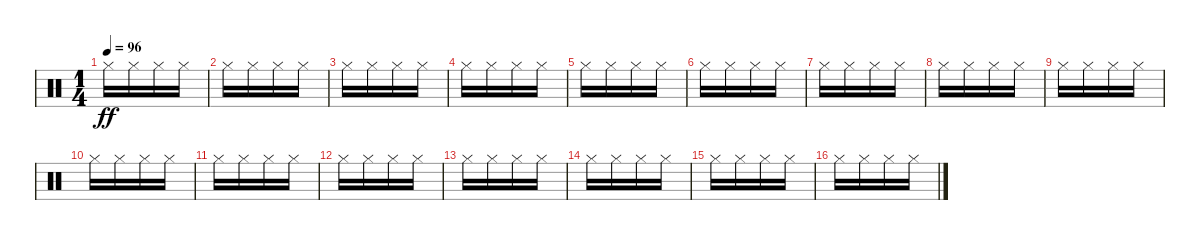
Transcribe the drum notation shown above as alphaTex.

\track "" {instrument percussion}
\staff {score}
\articulation defaults
\ts (1 4)
\tempo 96
\clef neutral
\ks c "Hi-Hat (closed)".16{dy ff} "Hi-Hat (closed)".16 "Hi-Hat (closed)".16 "Hi-Hat (closed)".16
|
"Hi-Hat (closed)".16 "Hi-Hat (closed)".16 "Hi-Hat (closed)".16 "Hi-Hat (closed)".16 |
"Hi-Hat (closed)".16 "Hi-Hat (closed)".16 "Hi-Hat (closed)".16 "Hi-Hat (closed)".16 |
"Hi-Hat (closed)".16 "Hi-Hat (closed)".16 "Hi-Hat (closed)".16 "Hi-Hat (closed)".16 |
"Hi-Hat (closed)".16 "Hi-Hat (closed)".16 "Hi-Hat (closed)".16 "Hi-Hat (closed)".16 |
"Hi-Hat (closed)".16 "Hi-Hat (closed)".16 "Hi-Hat (closed)".16 "Hi-Hat (closed)".16 |
"Hi-Hat (closed)".16 "Hi-Hat (closed)".16 "Hi-Hat (closed)".16 "Hi-Hat (closed)".16 |
"Hi-Hat (closed)".16 "Hi-Hat (closed)".16 "Hi-Hat (closed)".16 "Hi-Hat (closed)".16 |
"Hi-Hat (closed)".16 "Hi-Hat (closed)".16 "Hi-Hat (closed)".16 "Hi-Hat (closed)".16 |
"Hi-Hat (closed)".16 "Hi-Hat (closed)".16 "Hi-Hat (closed)".16 "Hi-Hat (closed)".16 |
"Hi-Hat (closed)".16 "Hi-Hat (closed)".16 "Hi-Hat (closed)".16 "Hi-Hat (closed)".16 |
"Hi-Hat (closed)".16 "Hi-Hat (closed)".16 "Hi-Hat (closed)".16 "Hi-Hat (closed)".16 |
"Hi-Hat (closed)".16 "Hi-Hat (closed)".16 "Hi-Hat (closed)".16 "Hi-Hat (closed)".16 |
"Hi-Hat (closed)".16 "Hi-Hat (closed)".16 "Hi-Hat (closed)".16 "Hi-Hat (closed)".16 |
"Hi-Hat (closed)".16 "Hi-Hat (closed)".16 "Hi-Hat (closed)".16 "Hi-Hat (closed)".16 |
"Hi-Hat (closed)".16 "Hi-Hat (closed)".16 "Hi-Hat (closed)".16 "Hi-Hat (closed)".16
